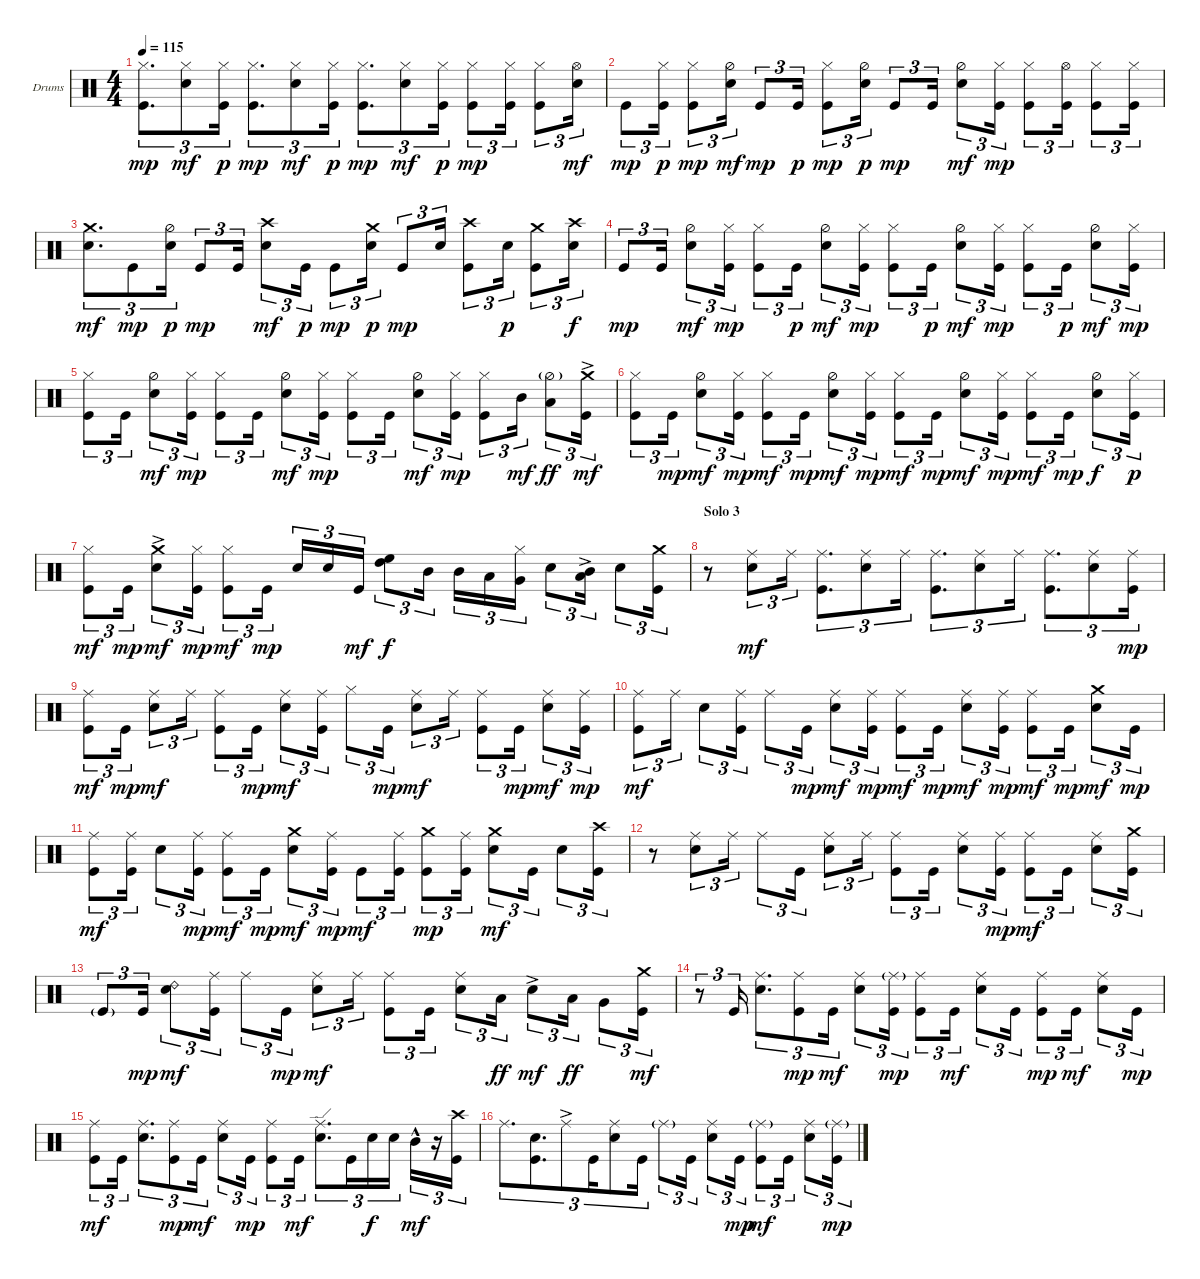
\defaultSystemsLayout 4
\bracketExtendMode groupsimilarinstruments
\firstSystemTrackNameOrientation horizontal
\otherSystemsTrackNameOrientation horizontal
\track ("Batterie " "Drums") {instrument percussion}
\staff {score}
\articulation defaults
\ts (4 4)
\tempo 115
\clef neutral
\ks c
("Kick (hit)" "Hi-Hat (closed)").8{d tu (3 2) dy mp} ("Snare (hit) 2" "Hi-Hat (closed)").8{tu (3 2) dy mf} ("Kick (hit)" "Hi-Hat (closed)").16{tu (3 2) dy p} ("Kick (hit)" "Hi-Hat (closed)").8{d tu (3 2) dy mp} ("Snare (hit) 2" "Hi-Hat (closed)").8{tu (3 2) dy mf} ("Kick (hit)" "Hi-Hat (closed)").16{tu (3 2) dy p} ("Kick (hit)" "Hi-Hat (closed)").8{d tu (3 2) dy mp} ("Snare (hit) 2" "Hi-Hat (closed)").8{tu (3 2) dy mf} ("Kick (hit)" "Hi-Hat (closed)").16{tu (3 2) dy p} ("Kick (hit)" "Hi-Hat (closed)").8{tu (3 2) dy mp} ("Kick (hit)" "Hi-Hat (closed)").16{tu (3 2)} ("Kick (hit)" "Hi-Hat (closed)").8{tu (3 2)} ("Snare (hit) 2" "Hi-Hat (open)").16{tu (3 2) dy mf} |
"Kick (hit)".8{tu (3 2) dy mp} ("Kick (hit)" "Hi-Hat (closed)").16{tu (3 2) dy p} ("Kick (hit)" "Hi-Hat (closed)").8{tu (3 2) dy mp} ("Snare (hit) 2" "Hi-Hat (half)").16{tu (3 2) dy mf} "Kick (hit)".8{tu (3 2) dy mp} "Kick (hit)".16{tu (3 2) dy p} ("Kick (hit)" "Hi-Hat (closed)").8{tu (3 2) dy mp} ("Snare (hit) 2" "Hi-Hat (half)").16{tu (3 2) dy p} "Kick (hit)".8{tu (3 2) dy mp} "Kick (hit)".16{tu (3 2)} ("Snare (hit) 2" "Hi-Hat (half)").8{tu (3 2) dy mf} ("Kick (hit)" "Hi-Hat (closed)").16{tu (3 2) dy mp} ("Kick (hit)" "Hi-Hat (closed)").8{tu (3 2)} ("Kick (hit)" "Hi-Hat (open)").16{tu (3 2)} ("Kick (hit)" "Hi-Hat (closed)").8{tu (3 2)} ("Kick (hit)" "Hi-Hat (closed)").16{tu (3 2)} |
("Snare (hit) 2" "Crash medium (hit)").8{d tu (3 2) dy mf} "Kick (hit)".8{tu (3 2) dy mp} ("Snare (hit) 2" "Hi-Hat (half)").16{tu (3 2) dy p} "Kick (hit)".8{tu (3 2) dy mp} "Kick (hit)".16{tu (3 2)} ("Snare (hit) 2" "Crash high (hit)").8{tu (3 2) dy mf} "Kick (hit)".16{tu (3 2) dy p} "Kick (hit)".8{tu (3 2) dy mp} ("Snare (hit) 2" "Crash medium (hit)").16{tu (3 2) dy p} "Kick (hit)".8{tu (3 2) dy mp} "Snare (hit) 2".16{tu (3 2)} ("Kick (hit)" "Crash high (hit)").8{tu (3 2)} "Snare (hit) 2".16{tu (3 2) dy p} ("Kick (hit)" "Crash medium (hit)").8{tu (3 2)} ("Snare (hit) 2" "Crash high (hit)").16{tu (3 2) dy f} |
"Kick (hit)".8{tu (3 2) dy mp} "Kick (hit)".16{tu (3 2)} ("Snare (hit) 2" "Hi-Hat (half)").8{tu (3 2) dy mf} ("Kick (hit)" "Hi-Hat (closed)").16{tu (3 2) dy mp} ("Kick (hit)" "Hi-Hat (closed)").8{tu (3 2)} "Kick (hit)".16{tu (3 2) dy p} ("Snare (hit) 2" "Hi-Hat (half)").8{tu (3 2) dy mf} ("Kick (hit)" "Hi-Hat (closed)").16{tu (3 2) dy mp} ("Kick (hit)" "Hi-Hat (closed)").8{tu (3 2)} "Kick (hit)".16{tu (3 2) dy p} ("Snare (hit) 2" "Hi-Hat (half)").8{tu (3 2) dy mf} ("Kick (hit)" "Hi-Hat (closed)").16{tu (3 2) dy mp} ("Kick (hit)" "Hi-Hat (closed)").8{tu (3 2)} "Kick (hit)".16{tu (3 2) dy p} ("Snare (hit) 2" "Hi-Hat (half)").8{tu (3 2) dy mf} ("Kick (hit)" "Hi-Hat (closed)").16{tu (3 2) dy mp} |
("Kick (hit)" "Hi-Hat (closed)").8{tu (3 2)} "Kick (hit)".16{tu (3 2)} ("Snare (hit) 2" "Hi-Hat (half)").8{tu (3 2) dy mf} ("Kick (hit)" "Hi-Hat (closed)").16{tu (3 2) dy mp} ("Kick (hit)" "Hi-Hat (closed)").8{tu (3 2)} "Kick (hit)".16{tu (3 2)} ("Snare (hit) 2" "Hi-Hat (half)").8{tu (3 2) dy mf} ("Kick (hit)" "Hi-Hat (closed)").16{tu (3 2) dy mp} ("Kick (hit)" "Hi-Hat (closed)").8{tu (3 2)} "Kick (hit)".16{tu (3 2)} ("Snare (hit) 2" "Hi-Hat (half)").8{tu (3 2) dy mf} ("Kick (hit)" "Hi-Hat (closed)").16{tu (3 2) dy mp} ("Kick (hit)" "Hi-Hat (closed)").8{tu (3 2)} "Mid Tom (hit)".16{tu (3 2) dy mf} ("Hi-Hat (half)"{g} "Low Tom (hit)").8{tu (3 2) dy ff} ("Kick (hit)" "Crash medium (hit)"{ac}).16{tu (3 2) dy mf} |
("Kick (hit)" "Hi-Hat (closed)").8{tu (3 2)} "Kick (hit)".16{tu (3 2) dy mp} ("Snare (hit) 2" "Hi-Hat (half)").8{tu (3 2) dy mf} ("Kick (hit)" "Hi-Hat (closed)").16{tu (3 2) dy mp} ("Kick (hit)" "Hi-Hat (closed)").8{tu (3 2) dy mf} "Kick (hit)".16{tu (3 2) dy mp} ("Snare (hit) 2" "Hi-Hat (half)").8{tu (3 2) dy mf} ("Kick (hit)" "Hi-Hat (closed)").16{tu (3 2) dy mp} ("Kick (hit)" "Hi-Hat (closed)").8{tu (3 2) dy mf} "Kick (hit)".16{tu (3 2) dy mp} ("Snare (hit) 2" "Hi-Hat (half)").8{tu (3 2) dy mf} ("Kick (hit)" "Hi-Hat (closed)").16{tu (3 2) dy mp} ("Kick (hit)" "Hi-Hat (closed)").8{tu (3 2) dy mf} "Kick (hit)".16{tu (3 2) dy mp} ("Snare (hit) 2" "Hi-Hat (half)").8{tu (3 2) dy f} ("Kick (hit)" "Hi-Hat (closed)").16{tu (3 2) dy p} |
("Kick (hit)" "Hi-Hat (closed)").8{tu (3 2) dy mf} "Kick (hit)".16{tu (3 2) dy mp} ("Snare (hit) 2"{ac} "Crash medium (hit)").8{tu (3 2) dy mf} ("Kick (hit)" "Hi-Hat (closed)").16{tu (3 2) dy mp} ("Kick (hit)" "Hi-Hat (closed)").8{tu (3 2) dy mf} "Kick (hit)".16{tu (3 2) dy mp} "Snare (hit) 2".16{tu (3 2)} "Snare (hit) 2".16{tu (3 2)} "Kick (hit)".16{tu (3 2) dy mf} ("High Tom (hit)" "High Floor Tom (hit)").8{tu (3 2) dy f} "Mid Tom (hit)".16{tu (3 2)} "Mid Tom (hit)".16{tu (3 2)} "Low Tom (hit)".16{tu (3 2)} ("Very Low Tom (hit)" "Hi-Hat (closed)").16{tu (3 2)} "Snare (hit) 2".8{tu (3 2)} ("Mid Tom (hit)"{ac} "Low Tom (hit)"{ac}).16{tu (3 2)} "Snare (hit) 2".8{tu (3 2)} ("Kick (hit)" "Crash medium (hit)").16{tu (3 2)} |
\section ("" "Solo 3")
r.8 ("Snare (hit) 2" "Ride (middle)").8{tu (3 2) dy mf} "Ride (middle)".16{tu (3 2)} ("Kick (hit)" "Ride (middle)").8{d tu (3 2)} ("Snare (hit) 2" "Ride (middle)").8{tu (3 2)} "Ride (middle)".16{tu (3 2)} ("Kick (hit)" "Ride (middle)").8{d tu (3 2)} ("Snare (hit) 2" "Ride (middle)").8{tu (3 2)} "Ride (middle)".16{tu (3 2)} ("Kick (hit)" "Ride (middle)").8{d tu (3 2)} ("Snare (hit) 2" "Ride (middle)").8{tu (3 2)} ("Kick (hit)" "Ride (middle)").16{tu (3 2) dy mp} |
("Kick (hit)" "Ride (middle)").8{tu (3 2) dy mf} "Kick (hit)".16{tu (3 2) dy mp} ("Snare (hit) 2" "Ride (middle)").8{tu (3 2) dy mf} "Ride (middle)".16{tu (3 2)} ("Kick (hit)" "Ride (middle)").8{tu (3 2)} "Kick (hit)".16{tu (3 2) dy mp} ("Snare (hit) 2" "Ride (middle)").8{tu (3 2) dy mf} ("Kick (hit)" "Ride (middle)").16{tu (3 2)} "Hi-Hat (closed)".8{tu (3 2)} "Kick (hit)".16{tu (3 2) dy mp} ("Snare (hit) 2" "Ride (middle)").8{tu (3 2) dy mf} "Ride (middle)".16{tu (3 2)} ("Kick (hit)" "Ride (middle)").8{tu (3 2)} "Kick (hit)".16{tu (3 2) dy mp} ("Snare (hit) 2" "Ride (middle)").8{tu (3 2) dy mf} ("Kick (hit)" "Ride (middle)").16{tu (3 2) dy mp} |
("Kick (hit)" "Ride (middle)").8{tu (3 2) dy mf} "Ride (middle)".16{tu (3 2)} "Snare (hit) 2".8{tu (3 2)} ("Kick (hit)" "Ride (middle)").16{tu (3 2)} "Ride (middle)".8{tu (3 2)} "Kick (hit)".16{tu (3 2) dy mp} ("Snare (hit) 2" "Ride (middle)").8{tu (3 2) dy mf} ("Kick (hit)" "Ride (middle)").16{tu (3 2) dy mp} ("Kick (hit)" "Ride (middle)").8{tu (3 2) dy mf} "Kick (hit)".16{tu (3 2) dy mp} ("Snare (hit) 2" "Ride (middle)").8{tu (3 2) dy mf} ("Kick (hit)" "Ride (middle)").16{tu (3 2) dy mp} ("Kick (hit)" "Ride (middle)").8{tu (3 2) dy mf} "Kick (hit)".16{tu (3 2) dy mp} ("Snare (hit) 2" "Crash medium (hit)").8{tu (3 2) dy mf} "Kick (hit)".16{tu (3 2) dy mp} |
("Kick (hit)" "Ride (middle)").8{tu (3 2) dy mf} ("Kick (hit)" "Ride (middle)").16{tu (3 2)} "Snare (hit) 2".8{tu (3 2)} ("Kick (hit)" "Ride (middle)").16{tu (3 2) dy mp} ("Kick (hit)" "Ride (middle)").8{tu (3 2) dy mf} "Kick (hit)".16{tu (3 2) dy mp} ("Snare (hit) 2" "Crash medium (hit)").8{tu (3 2) dy mf} ("Kick (hit)" "Ride (middle)").16{tu (3 2) dy mp} "Kick (hit)".8{tu (3 2) dy mf} ("Kick (hit)" "Ride (middle)").16{tu (3 2)} ("Crash medium (hit)" "Kick (hit)").8{tu (3 2) dy mp} ("Kick (hit)" "Ride (middle)").16{tu (3 2)} ("Snare (hit) 2" "Crash medium (hit)").8{tu (3 2) dy mf} "Kick (hit)".16{tu (3 2)} "Snare (hit) 2".8{tu (3 2)} ("Kick (hit)" "Crash high (hit)").16{tu (3 2)} |
r.8 ("Snare (hit) 2" "Ride (middle)").8{tu (3 2)} "Ride (middle)".16{tu (3 2)} "Ride (middle)".8{tu (3 2)} "Kick (hit)".16{tu (3 2)} ("Snare (hit) 2" "Ride (middle)").8{tu (3 2)} "Ride (middle)".16{tu (3 2)} ("Kick (hit)" "Ride (middle)").8{tu (3 2)} "Kick (hit)".16{tu (3 2)} ("Snare (hit) 2" "Ride (middle)").8{tu (3 2)} ("Kick (hit)" "Ride (middle)").16{tu (3 2) dy mp} ("Kick (hit)" "Ride (middle)").8{tu (3 2) dy mf} "Kick (hit)".16{tu (3 2)} ("Snare (hit) 2" "Ride (middle)").8{tu (3 2)} ("Kick (hit)" "Crash medium (hit)").16{tu (3 2)} |
"Kick (hit)"{g}.8{tu (3 2)} "Kick (hit)".16{tu (3 2) dy mp} ("Snare (hit) 2" "Ride (bell) 2").8{tu (3 2) dy mf} ("Kick (hit)" "Ride (middle)").16{tu (3 2)} "Ride (middle)".8{tu (3 2)} "Kick (hit)".16{tu (3 2) dy mp} ("Snare (hit) 2" "Ride (middle)").8{tu (3 2) dy mf} "Ride (middle)".16{tu (3 2)} ("Kick (hit)" "Ride (middle)").8{tu (3 2)} "Kick (hit)".16{tu (3 2)} ("Snare (hit) 2" "Ride (middle)").8{tu (3 2)} "Low Tom (hit)".16{tu (3 2) dy ff} "Snare (hit) 2"{ac}.8{tu (3 2) dy mf} "Low Tom (hit)".16{tu (3 2) dy ff} "Very Low Tom (hit)".8{tu (3 2)} ("Crash medium (hit)" "Kick (hit)").16{tu (3 2) dy mf} |
r.8{tu (3 2)} "Kick (hit)".16{tu (3 2)} ("Snare (hit) 2" "Ride (middle)").8{d tu (3 2)} ("Kick (hit)" "Ride (middle)").8{tu (3 2) dy mp} "Kick (hit)".16{tu (3 2) dy mf} ("Snare (hit) 2" "Ride (middle)").8{tu (3 2)} ("Kick (hit)" "Ride (middle)"{g}).16{tu (3 2) dy mp} ("Kick (hit)" "Ride (middle)").8{tu (3 2)} "Kick (hit)".16{tu (3 2) dy mf} ("Snare (hit) 2" "Ride (middle)").8{tu (3 2)} "Kick (hit)".16{tu (3 2)} ("Kick (hit)" "Ride (middle)").8{tu (3 2) dy mp} "Kick (hit)".16{tu (3 2) dy mf} ("Snare (hit) 2" "Ride (middle)").8{tu (3 2)} "Kick (hit)".16{tu (3 2) dy mp} |
("Kick (hit)" "Ride (middle)").8{tu (3 2) dy mf} "Kick (hit)".16{tu (3 2)} ("Snare (hit) 2" "Ride (middle)").8{d tu (3 2)} ("Kick (hit)" "Ride (middle)").8{tu (3 2) dy mp} "Kick (hit)".16{tu (3 2) dy mf} ("Snare (hit) 2" "Ride (middle)").8{tu (3 2)} "Kick (hit)".16{tu (3 2) dy mp} ("Kick (hit)" "Ride (middle)").8{tu (3 2)} "Kick (hit)".16{tu (3 2) dy mf} ("Snare (hit) 2" "Ride (edge)").8{d tu (3 2)} "Kick (hit)".16{tu (3 2)} "Snare (hit) 2".16{tu (3 2) dy f} "Snare (hit) 2".16{tu (3 2)} "Mid Tom (hit)"{hac}.16{tu (3 2) dy mf} r.16{tu (3 2)} ("Kick (hit)" "Crash high (hit)").16{tu (3 2)} |
"Ride (middle)".8{d tu (3 2)} ("Snare (hit) 2" "Kick (hit)").8{d tu (3 2)} "Ride (middle)"{ac}.8{tu (3 2)} "Kick (hit)".16{tu (3 2)} ("Snare (hit) 2" "Ride (middle)").8{tu (3 2)} "Kick (hit)".16{tu (3 2)} "Ride (middle)"{g}.8{tu (3 2)} "Kick (hit)".16{tu (3 2)} ("Snare (hit) 2" "Ride (middle)").8{tu (3 2)} "Kick (hit)".16{tu (3 2) dy mp} ("Kick (hit)" "Ride (middle)"{g}).8{tu (3 2) dy mf} "Kick (hit)".16{tu (3 2)} ("Snare (hit) 2" "Ride (middle)").8{tu (3 2)} ("Kick (hit)" "Ride (middle)"{g}).16{tu (3 2) dy mp}
